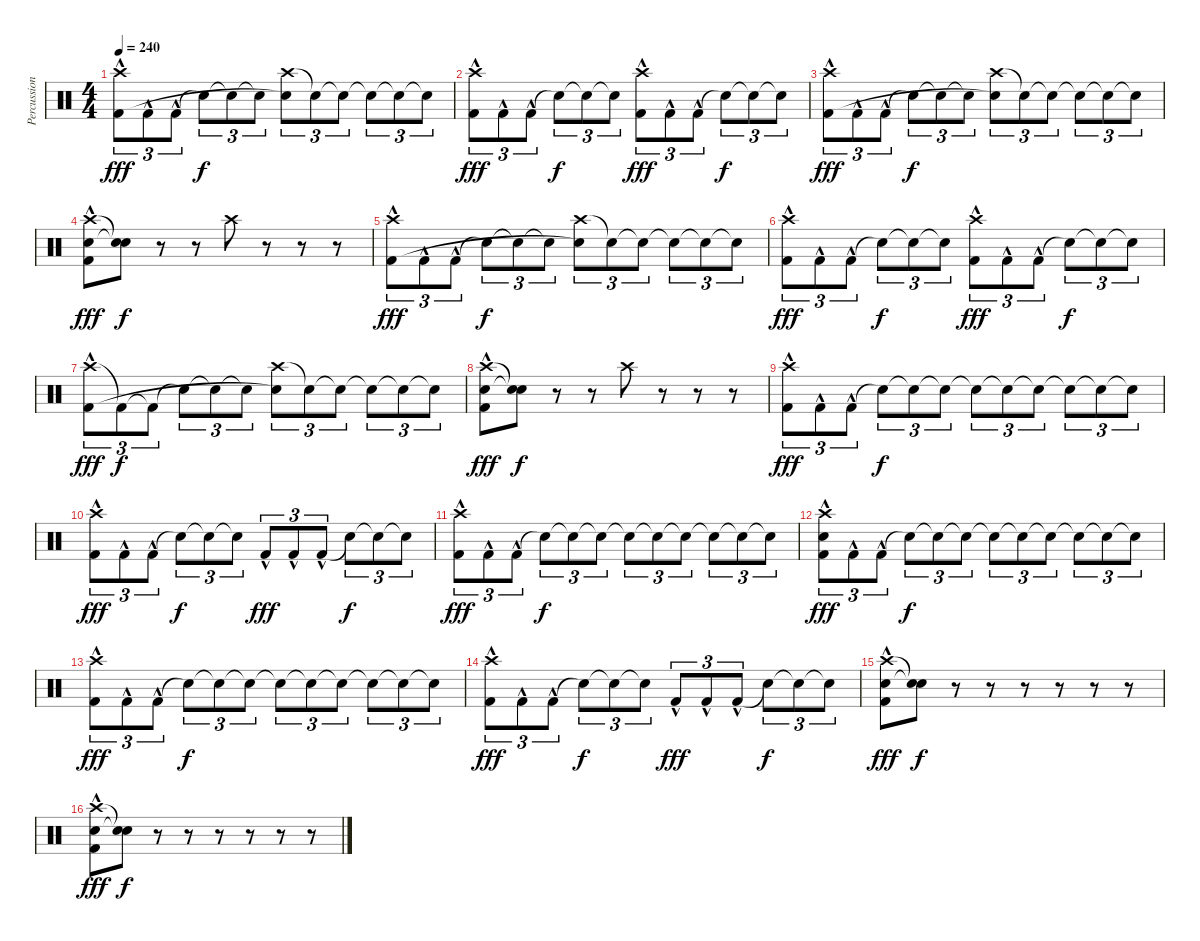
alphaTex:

\track ("Percussion" "Percussion") {instrument percussion}
\staff {score}
\articulation defaults
\ts (4 4)
\tempo 240
\clef neutral
\ks c
("Crash high (hit)" "Kick (hit) 2"{hac}).8{tu (3 2) dy fff} "Kick (hit) 2"{hac}.8{tu (3 2)} "Kick (hit) 2"{hac}.8{tu (3 2)} "Snare (hit)"{t}.8{tu (3 2) dy f} "Snare (hit)"{t}.8{tu (3 2)} "Snare (hit)"{t}.8{tu (3 2)} ("Crash high (hit)" "Snare (hit)"{t}).8{tu (3 2)} "Snare (hit)"{t}.8{tu (3 2)} "Snare (hit)"{t}.8{tu (3 2)} "Snare (hit)"{t}.8{tu (3 2)} "Snare (hit)"{t}.8{tu (3 2)} "Snare (hit)"{t}.8{tu (3 2)} |
("Crash high (hit)" "Kick (hit) 2"{hac}).8{tu (3 2) dy fff} "Kick (hit) 2"{hac}.8{tu (3 2)} "Kick (hit) 2"{hac}.8{tu (3 2)} "Snare (hit)"{t}.8{tu (3 2) dy f} "Snare (hit)"{t}.8{tu (3 2)} "Snare (hit)"{t}.8{tu (3 2)} ("Crash high (hit)" "Kick (hit) 2"{hac}).8{tu (3 2) dy fff} "Kick (hit) 2"{hac}.8{tu (3 2)} "Kick (hit) 2"{hac}.8{tu (3 2)} "Snare (hit)"{t}.8{tu (3 2) dy f} "Snare (hit)"{t}.8{tu (3 2)} "Snare (hit)"{t}.8{tu (3 2)} |
("Crash high (hit)" "Kick (hit) 2"{hac}).8{tu (3 2) dy fff} "Kick (hit) 2"{hac}.8{tu (3 2)} "Kick (hit) 2"{hac}.8{tu (3 2)} "Snare (hit)"{t}.8{tu (3 2) dy f} "Snare (hit)"{t}.8{tu (3 2)} "Snare (hit)"{t}.8{tu (3 2)} ("Crash high (hit)" "Snare (hit)"{t}).8{tu (3 2)} "Snare (hit)"{t}.8{tu (3 2)} "Snare (hit)"{t}.8{tu (3 2)} "Snare (hit)"{t}.8{tu (3 2)} "Snare (hit)"{t}.8{tu (3 2)} "Snare (hit)"{t}.8{tu (3 2)} |
("Crash high (hit)" "Electric Snare (hit)"{hac} "Kick (hit) 2"{hac}).8{dy fff} ("Snare (hit)"{t} "Snare (hit)"{t}).8{dy f} r.8 r.8 "Crash high (hit)".8 r.8 r.8 r.8 |
("Crash high (hit)" "Kick (hit) 2"{hac}).8{tu (3 2) dy fff} "Kick (hit) 2"{hac}.8{tu (3 2)} "Kick (hit) 2"{hac}.8{tu (3 2)} "Snare (hit)"{t}.8{tu (3 2) dy f} "Snare (hit)"{t}.8{tu (3 2)} "Snare (hit)"{t}.8{tu (3 2)} ("Crash high (hit)" "Snare (hit)"{t}).8{tu (3 2)} "Snare (hit)"{t}.8{tu (3 2)} "Snare (hit)"{t}.8{tu (3 2)} "Snare (hit)"{t}.8{tu (3 2)} "Snare (hit)"{t}.8{tu (3 2)} "Snare (hit)"{t}.8{tu (3 2)} |
("Crash high (hit)" "Kick (hit) 2"{hac}).8{tu (3 2) dy fff} "Kick (hit) 2"{hac}.8{tu (3 2)} "Kick (hit) 2"{hac}.8{tu (3 2)} "Snare (hit)"{t}.8{tu (3 2) dy f} "Snare (hit)"{t}.8{tu (3 2)} "Snare (hit)"{t}.8{tu (3 2)} ("Crash high (hit)" "Kick (hit) 2"{hac}).8{tu (3 2) dy fff} "Kick (hit) 2"{hac}.8{tu (3 2)} "Kick (hit) 2"{hac}.8{tu (3 2)} "Snare (hit)"{t}.8{tu (3 2) dy f} "Snare (hit)"{t}.8{tu (3 2)} "Snare (hit)"{t}.8{tu (3 2)} |
("Crash high (hit)" "Kick (hit) 2"{hac}).8{tu (3 2) dy fff} "Kick (hit) 2"{t}.8{tu (3 2) dy f} "Kick (hit) 2"{t}.8{tu (3 2)} "Snare (hit)"{t}.8{tu (3 2)} "Snare (hit)"{t}.8{tu (3 2)} "Snare (hit)"{t}.8{tu (3 2)} ("Crash high (hit)" "Snare (hit)"{t}).8{tu (3 2)} "Snare (hit)"{t}.8{tu (3 2)} "Snare (hit)"{t}.8{tu (3 2)} "Snare (hit)"{t}.8{tu (3 2)} "Snare (hit)"{t}.8{tu (3 2)} "Snare (hit)"{t}.8{tu (3 2)} |
("Crash high (hit)" "Electric Snare (hit)"{hac} "Kick (hit) 2"{hac}).8{dy fff} ("Snare (hit)"{t} "Snare (hit)"{t}).8{dy f} r.8 r.8 "Crash high (hit)".8 r.8 r.8 r.8 |
("Crash high (hit)" "Kick (hit) 2"{hac}).8{tu (3 2) dy fff} "Kick (hit) 2"{hac}.8{tu (3 2)} "Kick (hit) 2"{hac}.8{tu (3 2)} "Snare (hit)"{t}.8{tu (3 2) dy f} "Snare (hit)"{t}.8{tu (3 2)} "Snare (hit)"{t}.8{tu (3 2)} "Snare (hit)"{t}.8{tu (3 2)} "Snare (hit)"{t}.8{tu (3 2)} "Snare (hit)"{t}.8{tu (3 2)} "Snare (hit)"{t}.8{tu (3 2)} "Snare (hit)"{t}.8{tu (3 2)} "Snare (hit)"{t}.8{tu (3 2)} |
("Crash high (hit)" "Kick (hit) 2"{hac}).8{tu (3 2) dy fff} "Kick (hit) 2"{hac}.8{tu (3 2)} "Kick (hit) 2"{hac}.8{tu (3 2)} "Snare (hit)"{t}.8{tu (3 2) dy f} "Snare (hit)"{t}.8{tu (3 2)} "Snare (hit)"{t}.8{tu (3 2)} "Kick (hit) 2"{hac}.8{tu (3 2) dy fff} "Kick (hit) 2"{hac}.8{tu (3 2)} "Kick (hit) 2"{hac}.8{tu (3 2)} "Snare (hit)"{t}.8{tu (3 2) dy f} "Snare (hit)"{t}.8{tu (3 2)} "Snare (hit)"{t}.8{tu (3 2)} |
("Crash high (hit)" "Kick (hit) 2"{hac}).8{tu (3 2) dy fff} "Kick (hit) 2"{hac}.8{tu (3 2)} "Kick (hit) 2"{hac}.8{tu (3 2)} "Snare (hit)"{t}.8{tu (3 2) dy f} "Snare (hit)"{t}.8{tu (3 2)} "Snare (hit)"{t}.8{tu (3 2)} "Snare (hit)"{t}.8{tu (3 2)} "Snare (hit)"{t}.8{tu (3 2)} "Snare (hit)"{t}.8{tu (3 2)} "Snare (hit)"{t}.8{tu (3 2)} "Snare (hit)"{t}.8{tu (3 2)} "Snare (hit)"{t}.8{tu (3 2)} |
("Crash high (hit)" "Electric Snare (hit)" "Kick (hit) 2"{hac}).8{tu (3 2) dy fff} "Kick (hit) 2"{hac}.8{tu (3 2)} "Kick (hit) 2"{hac}.8{tu (3 2)} "Snare (hit)"{t}.8{tu (3 2) dy f} "Snare (hit)"{t}.8{tu (3 2)} "Snare (hit)"{t}.8{tu (3 2)} "Snare (hit)"{t}.8{tu (3 2)} "Snare (hit)"{t}.8{tu (3 2)} "Snare (hit)"{t}.8{tu (3 2)} "Snare (hit)"{t}.8{tu (3 2)} "Snare (hit)"{t}.8{tu (3 2)} "Snare (hit)"{t}.8{tu (3 2)} |
("Crash high (hit)" "Kick (hit) 2"{hac}).8{tu (3 2) dy fff} "Kick (hit) 2"{hac}.8{tu (3 2)} "Kick (hit) 2"{hac}.8{tu (3 2)} "Snare (hit)"{t}.8{tu (3 2) dy f} "Snare (hit)"{t}.8{tu (3 2)} "Snare (hit)"{t}.8{tu (3 2)} "Snare (hit)"{t}.8{tu (3 2)} "Snare (hit)"{t}.8{tu (3 2)} "Snare (hit)"{t}.8{tu (3 2)} "Snare (hit)"{t}.8{tu (3 2)} "Snare (hit)"{t}.8{tu (3 2)} "Snare (hit)"{t}.8{tu (3 2)} |
("Crash high (hit)" "Kick (hit) 2"{hac}).8{tu (3 2) dy fff} "Kick (hit) 2"{hac}.8{tu (3 2)} "Kick (hit) 2"{hac}.8{tu (3 2)} "Snare (hit)"{t}.8{tu (3 2) dy f} "Snare (hit)"{t}.8{tu (3 2)} "Snare (hit)"{t}.8{tu (3 2)} "Kick (hit) 2"{hac}.8{tu (3 2) dy fff} "Kick (hit) 2"{hac}.8{tu (3 2)} "Kick (hit) 2"{hac}.8{tu (3 2)} "Snare (hit)"{t}.8{tu (3 2) dy f} "Snare (hit)"{t}.8{tu (3 2)} "Snare (hit)"{t}.8{tu (3 2)} |
("Crash high (hit)" "Electric Snare (hit)"{hac} "Kick (hit) 2"{hac}).8{dy fff} ("Snare (hit)"{t} "Snare (hit)"{t}).8{dy f} r.8 r.8 r.8 r.8 r.8 r.8 |
("Crash high (hit)" "Electric Snare (hit)"{hac} "Kick (hit) 2"{hac}).8{dy fff} ("Snare (hit)"{t} "Snare (hit)"{t}).8{dy f} r.8 r.8 r.8 r.8 r.8 r.8
